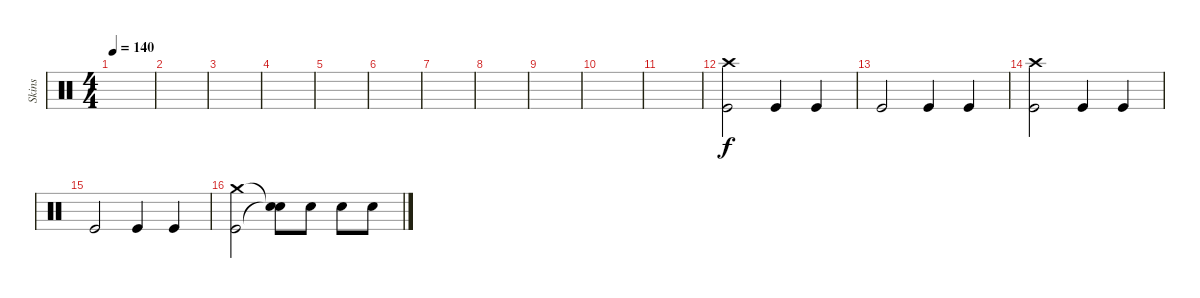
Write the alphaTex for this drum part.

\track ("Skins" "Skins") {instrument percussion}
\staff {score}
\articulation defaults
\ts (4 4)
\tempo 140
\clef neutral
\ks c
|
|
|
|
|
|
|
|
|
|
|
("Crash high (hit)" "Kick (hit)").2{dy f} "Kick (hit)".4 "Kick (hit)".4 |
"Kick (hit)".2 "Kick (hit)".4 "Kick (hit)".4 |
("Crash high (hit)" "Kick (hit)").2 "Kick (hit)".4 "Kick (hit)".4 |
"Kick (hit)".2 "Kick (hit)".4 "Kick (hit)".4 |
("Crash medium (hit)" "Kick (hit)").2 ("Snare (hit)"{t} "Snare (hit)"{t}).8 "Snare (hit) 2".8 "Snare (hit) 2".8 "Snare (hit) 2".8
